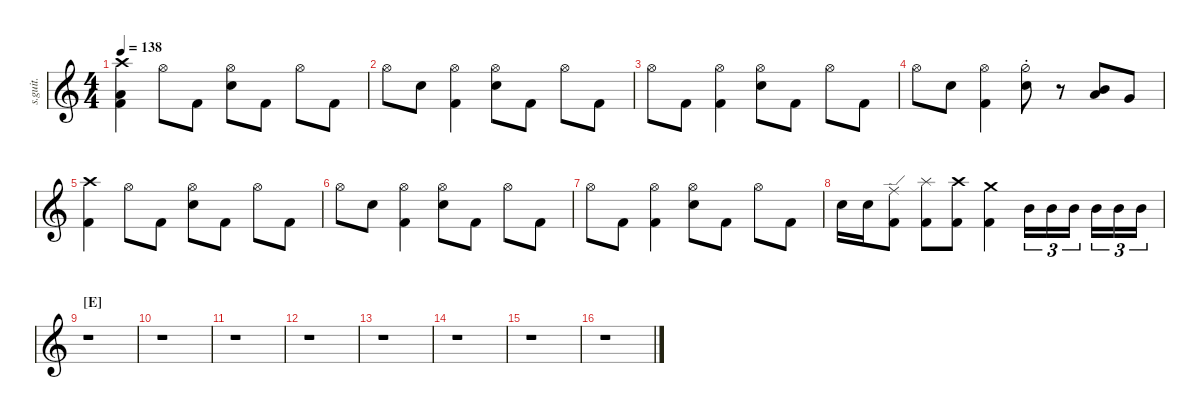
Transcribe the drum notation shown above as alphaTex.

\defaultSystemsLayout 4
\hideDynamics
\bracketExtendMode nobrackets
\track ("Nathan Camarena" "s.guit.") {instrument percussion}
\staff {score}
\articulation defaults
\ts (4 4)
\tempo 138
\clef g2
\ks c
("Crash high (hit)" "Kick (hit) 2" "Low Tom (hit)").4{lyrics (0 "") lyrics (1 "") lyrics (2 "") lyrics (3 "") lyrics (4 "") dy f} "Hi-Hat (open)".8{lyrics (0 "") lyrics (1 "") lyrics (2 "") lyrics (3 "") lyrics (4 "")} "Kick (hit) 2".8{lyrics (0 "") lyrics (1 "") lyrics (2 "") lyrics (3 "") lyrics (4 "")} ("Snare (hit) 2" "Hi-Hat (open)").8{lyrics (0 "") lyrics (1 "") lyrics (2 "") lyrics (3 "") lyrics (4 "")} "Kick (hit) 2".8{lyrics (0 "") lyrics (1 "") lyrics (2 "") lyrics (3 "") lyrics (4 "")} "Hi-Hat (open)".8{lyrics (0 "") lyrics (1 "") lyrics (2 "") lyrics (3 "") lyrics (4 "")} "Kick (hit) 2".8{lyrics (0 "") lyrics (1 "") lyrics (2 "") lyrics (3 "") lyrics (4 "")} |
"Hi-Hat (open)".8{lyrics (0 "") lyrics (1 "") lyrics (2 "") lyrics (3 "") lyrics (4 "")} "Snare (hit) 2".8{lyrics (0 "") lyrics (1 "") lyrics (2 "") lyrics (3 "") lyrics (4 "")} ("Kick (hit) 2" "Hi-Hat (open)").4{lyrics (0 "") lyrics (1 "") lyrics (2 "") lyrics (3 "") lyrics (4 "")} ("Snare (hit) 2" "Hi-Hat (open)").8{lyrics (0 "") lyrics (1 "") lyrics (2 "") lyrics (3 "") lyrics (4 "")} "Kick (hit) 2".8{lyrics (0 "") lyrics (1 "") lyrics (2 "") lyrics (3 "") lyrics (4 "")} "Hi-Hat (open)".8{lyrics (0 "") lyrics (1 "") lyrics (2 "") lyrics (3 "") lyrics (4 "")} "Kick (hit) 2".8{lyrics (0 "") lyrics (1 "") lyrics (2 "") lyrics (3 "") lyrics (4 "")} |
"Hi-Hat (open)".8{lyrics (0 "") lyrics (1 "") lyrics (2 "") lyrics (3 "") lyrics (4 "")} "Kick (hit) 2".8{lyrics (0 "") lyrics (1 "") lyrics (2 "") lyrics (3 "") lyrics (4 "")} ("Kick (hit) 2" "Hi-Hat (open)").4{lyrics (0 "") lyrics (1 "") lyrics (2 "") lyrics (3 "") lyrics (4 "")} ("Snare (hit) 2" "Hi-Hat (open)").8{lyrics (0 "") lyrics (1 "") lyrics (2 "") lyrics (3 "") lyrics (4 "")} "Kick (hit) 2".8{lyrics (0 "") lyrics (1 "") lyrics (2 "") lyrics (3 "") lyrics (4 "")} "Hi-Hat (open)".8{lyrics (0 "") lyrics (1 "") lyrics (2 "") lyrics (3 "") lyrics (4 "")} "Kick (hit) 2".8{lyrics (0 "") lyrics (1 "") lyrics (2 "") lyrics (3 "") lyrics (4 "")} |
"Hi-Hat (open)".8{lyrics (0 "") lyrics (1 "") lyrics (2 "") lyrics (3 "") lyrics (4 "")} "Snare (hit) 2".8{lyrics (0 "") lyrics (1 "") lyrics (2 "") lyrics (3 "") lyrics (4 "")} ("Kick (hit) 2" "Hi-Hat (open)").4{lyrics (0 "") lyrics (1 "") lyrics (2 "") lyrics (3 "") lyrics (4 "")} ("Snare (hit) 2" "Hi-Hat (half)"{st}).8{lyrics (0 "") lyrics (1 "") lyrics (2 "") lyrics (3 "") lyrics (4 "")} r.8 ("Mid Tom (hit)" "Low Tom (hit)").8{lyrics (0 "") lyrics (1 "") lyrics (2 "") lyrics (3 "") lyrics (4 "") dy fff} "Very Low Tom (hit)".8{lyrics (0 "") lyrics (1 "") lyrics (2 "") lyrics (3 "") lyrics (4 "")} |
("Crash high (hit)" "Kick (hit) 2").4{lyrics (0 "") lyrics (1 "") lyrics (2 "") lyrics (3 "") lyrics (4 "") dy f} "Hi-Hat (open)".8{lyrics (0 "") lyrics (1 "") lyrics (2 "") lyrics (3 "") lyrics (4 "")} "Kick (hit) 2".8{lyrics (0 "") lyrics (1 "") lyrics (2 "") lyrics (3 "") lyrics (4 "")} ("Snare (hit) 2" "Hi-Hat (open)").8{lyrics (0 "") lyrics (1 "") lyrics (2 "") lyrics (3 "") lyrics (4 "")} "Kick (hit) 2".8{lyrics (0 "") lyrics (1 "") lyrics (2 "") lyrics (3 "") lyrics (4 "")} "Hi-Hat (open)".8{lyrics (0 "") lyrics (1 "") lyrics (2 "") lyrics (3 "") lyrics (4 "")} "Kick (hit) 2".8{lyrics (0 "") lyrics (1 "") lyrics (2 "") lyrics (3 "") lyrics (4 "")} |
"Hi-Hat (open)".8{lyrics (0 "") lyrics (1 "") lyrics (2 "") lyrics (3 "") lyrics (4 "")} "Snare (hit) 2".8{lyrics (0 "") lyrics (1 "") lyrics (2 "") lyrics (3 "") lyrics (4 "")} ("Kick (hit) 2" "Hi-Hat (open)").4{lyrics (0 "") lyrics (1 "") lyrics (2 "") lyrics (3 "") lyrics (4 "")} ("Snare (hit) 2" "Hi-Hat (open)").8{lyrics (0 "") lyrics (1 "") lyrics (2 "") lyrics (3 "") lyrics (4 "")} "Kick (hit) 2".8{lyrics (0 "") lyrics (1 "") lyrics (2 "") lyrics (3 "") lyrics (4 "")} "Hi-Hat (open)".8{lyrics (0 "") lyrics (1 "") lyrics (2 "") lyrics (3 "") lyrics (4 "")} "Kick (hit) 2".8{lyrics (0 "") lyrics (1 "") lyrics (2 "") lyrics (3 "") lyrics (4 "")} |
"Hi-Hat (open)".8{lyrics (0 "") lyrics (1 "") lyrics (2 "") lyrics (3 "") lyrics (4 "")} "Kick (hit) 2".8{lyrics (0 "") lyrics (1 "") lyrics (2 "") lyrics (3 "") lyrics (4 "")} ("Kick (hit) 2" "Hi-Hat (open)").4{lyrics (0 "") lyrics (1 "") lyrics (2 "") lyrics (3 "") lyrics (4 "")} ("Snare (hit) 2" "Hi-Hat (open)").8{lyrics (0 "") lyrics (1 "") lyrics (2 "") lyrics (3 "") lyrics (4 "")} "Kick (hit) 2".8{lyrics (0 "") lyrics (1 "") lyrics (2 "") lyrics (3 "") lyrics (4 "")} "Hi-Hat (open)".8{lyrics (0 "") lyrics (1 "") lyrics (2 "") lyrics (3 "") lyrics (4 "")} "Kick (hit) 2".8{lyrics (0 "") lyrics (1 "") lyrics (2 "") lyrics (3 "") lyrics (4 "")} |
"Snare (hit) 2".16{lyrics (0 "") lyrics (1 "") lyrics (2 "") lyrics (3 "") lyrics (4 "")} "Snare (hit) 2".16{lyrics (0 "") lyrics (1 "") lyrics (2 "") lyrics (3 "") lyrics (4 "")} ("Kick (hit) 2" "Ride (edge)").8{lyrics (0 "") lyrics (1 "") lyrics (2 "") lyrics (3 "") lyrics (4 "")} ("Kick (hit) 2" "Splash (hit)").8{lyrics (0 "") lyrics (1 "") lyrics (2 "") lyrics (3 "") lyrics (4 "")} ("Kick (hit) 2" "Crash high (hit)").8{lyrics (0 "") lyrics (1 "") lyrics (2 "") lyrics (3 "") lyrics (4 "")} ("Kick (hit) 2" "Crash medium (hit)").4{lyrics (0 "") lyrics (1 "") lyrics (2 "") lyrics (3 "") lyrics (4 "")} "Mid Tom (hit)".16{tu (3 2) lyrics (0 "") lyrics (1 "") lyrics (2 "") lyrics (3 "") lyrics (4 "") dy fff} "Mid Tom (hit)".16{tu (3 2) lyrics (0 "") lyrics (1 "") lyrics (2 "") lyrics (3 "") lyrics (4 "")} "Mid Tom (hit)".16{tu (3 2) lyrics (0 "") lyrics (1 "") lyrics (2 "") lyrics (3 "") lyrics (4 "")} "Mid Tom (hit)".16{tu (3 2) lyrics (0 "") lyrics (1 "") lyrics (2 "") lyrics (3 "") lyrics (4 "")} "Mid Tom (hit)".16{tu (3 2) lyrics (0 "") lyrics (1 "") lyrics (2 "") lyrics (3 "") lyrics (4 "")} "Mid Tom (hit)".16{tu (3 2) lyrics (0 "") lyrics (1 "") lyrics (2 "") lyrics (3 "") lyrics (4 "")} |
\section ("E" "")
r.1 |
r.1 |
r.1 |
r.1 |
r.1 |
r.1 |
r.1 |
r.1
